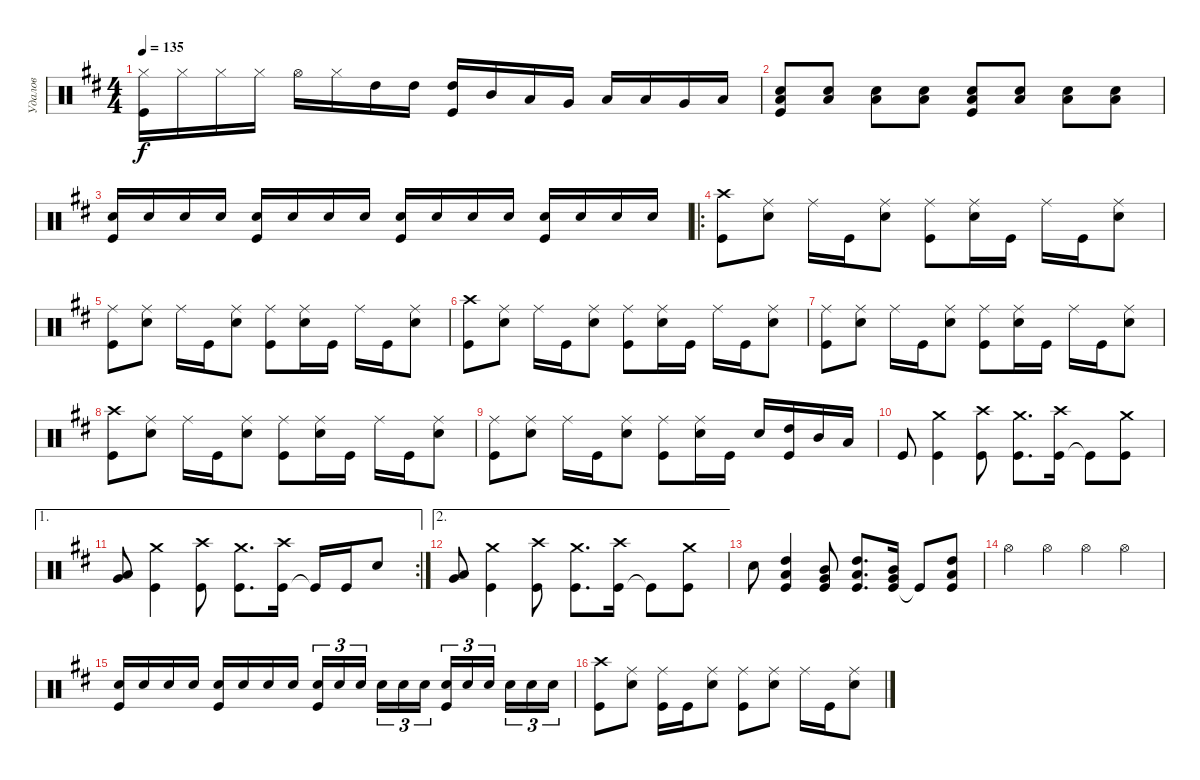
\track ("Удалов" "Удалов") {instrument percussion}
\staff {score}
\articulation defaults
\ts (4 4)
\tempo 135
\clef neutral
\ks d
("Kick (hit)" "Hi-Hat (closed)").16{dy f} "Hi-Hat (closed)".16 "Hi-Hat (closed)".16 "Hi-Hat (closed)".16 "Hi-Hat (open)".16 "Hi-Hat (closed)".16 "High Tom (hit)".16 "High Tom (hit)".16 ("High Tom (hit)" "Kick (hit)").16 "Mid Tom (hit)".16 "Low Tom (hit)".16 "Very Low Tom (hit)".16 "Low Tom (hit)".16 "Low Tom (hit)".16 "Very Low Tom (hit)".16 "Low Floor Tom (hit)".16 |
("Kick (hit)" "Electric Snare (hit)" "Low Floor Tom (hit)").8 ("Electric Snare (hit)" "Low Floor Tom (hit)").8 ("Electric Snare (hit)" "Low Floor Tom (hit)").8 ("Electric Snare (hit)" "Low Floor Tom (hit)").8 ("Kick (hit)" "Electric Snare (hit)" "Low Floor Tom (hit)").8 ("Electric Snare (hit)" "Low Floor Tom (hit)").8 ("Electric Snare (hit)" "Low Floor Tom (hit)").8 ("Electric Snare (hit)" "Low Floor Tom (hit)").8 |
("Kick (hit)" "Electric Snare (hit)").16 "Electric Snare (hit)".16 "Electric Snare (hit)".16 "Electric Snare (hit)".16 ("Kick (hit)" "Electric Snare (hit)").16 "Electric Snare (hit)".16 "Electric Snare (hit)".16 "Electric Snare (hit)".16 ("Kick (hit)" "Electric Snare (hit)").16 "Electric Snare (hit)".16 "Electric Snare (hit)".16 "Electric Snare (hit)".16 ("Kick (hit)" "Electric Snare (hit)").16 "Electric Snare (hit)".16 "Electric Snare (hit)".16 "Electric Snare (hit)".16 |
\ro
("Kick (hit)" "Crash high (hit)").8 ("Electric Snare (hit)" "Ride (middle)").8 "Ride (middle)".16 "Kick (hit)".16 ("Electric Snare (hit)" "Ride (middle)").8 ("Ride (middle)" "Kick (hit)").8 ("Ride (middle)" "Electric Snare (hit)").16 "Kick (hit)".16 "Ride (middle)".16 "Kick (hit)".16 ("Electric Snare (hit)" "Ride (middle)").8 |
("Kick (hit)" "Ride (middle)").8 ("Electric Snare (hit)" "Ride (middle)").8 "Ride (middle)".16 "Kick (hit)".16 ("Electric Snare (hit)" "Ride (middle)").8 ("Ride (middle)" "Kick (hit)").8 ("Ride (middle)" "Electric Snare (hit)").16 "Kick (hit)".16 "Ride (middle)".16 "Kick (hit)".16 ("Electric Snare (hit)" "Ride (middle)").8 |
("Kick (hit)" "Crash high (hit)").8 ("Electric Snare (hit)" "Ride (middle)").8 "Ride (middle)".16 "Kick (hit)".16 ("Electric Snare (hit)" "Ride (middle)").8 ("Ride (middle)" "Kick (hit)").8 ("Ride (middle)" "Electric Snare (hit)").16 "Kick (hit)".16 "Ride (middle)".16 "Kick (hit)".16 ("Electric Snare (hit)" "Ride (middle)").8 |
("Kick (hit)" "Ride (middle)").8 ("Electric Snare (hit)" "Ride (middle)").8 "Ride (middle)".16 "Kick (hit)".16 ("Electric Snare (hit)" "Ride (middle)").8 ("Ride (middle)" "Kick (hit)").8 ("Ride (middle)" "Electric Snare (hit)").16 "Kick (hit)".16 "Ride (middle)".16 "Kick (hit)".16 ("Electric Snare (hit)" "Ride (middle)").8 |
("Kick (hit)" "Crash high (hit)").8 ("Electric Snare (hit)" "Ride (middle)").8 "Ride (middle)".16 "Kick (hit)".16 ("Electric Snare (hit)" "Ride (middle)").8 ("Ride (middle)" "Kick (hit)").8 ("Ride (middle)" "Electric Snare (hit)").16 "Kick (hit)".16 "Ride (middle)".16 "Kick (hit)".16 ("Electric Snare (hit)" "Ride (middle)").8 |
("Kick (hit)" "Ride (middle)").8 ("Electric Snare (hit)" "Ride (middle)").8 "Ride (middle)".16 "Kick (hit)".16 ("Electric Snare (hit)" "Ride (middle)").8 ("Ride (middle)" "Kick (hit)").8 ("Ride (middle)" "Electric Snare (hit)").16 "Kick (hit)".16 "Electric Snare (hit)".16 ("Kick (hit)" "High Tom (hit)").16 "Mid Tom (hit)".16 "Low Tom (hit)".16 |
"Kick (hit)".8 ("Kick (hit)" "Crash medium (hit)").4 ("Kick (hit)" "Crash high (hit)").8 ("Kick (hit)" "Crash medium (hit)").8{d} ("Kick (hit)" "Crash high (hit)").16 "Kick (hit)"{t}.8 ("Kick (hit)" "Crash medium (hit)").8 |
\ae 1
\rc 2
("Very Low Tom (hit)" "Low Tom (hit)").8 ("Kick (hit)" "Crash medium (hit)").4 ("Kick (hit)" "Crash high (hit)").8 ("Kick (hit)" "Crash medium (hit)").8{d} ("Kick (hit)" "Crash high (hit)").16 "Kick (hit)"{t}.16 "Kick (hit)".16 "Electric Snare (hit)".8 |
\ae 2
("Very Low Tom (hit)" "Low Tom (hit)").8 ("Kick (hit)" "Crash medium (hit)").4 ("Kick (hit)" "Crash high (hit)").8 ("Kick (hit)" "Crash medium (hit)").8{d} ("Kick (hit)" "Crash high (hit)").16 "Kick (hit)"{t}.8 ("Kick (hit)" "Crash medium (hit)").8 |
"Electric Snare (hit)".8 ("Kick (hit)" "Low Tom (hit)" "High Tom (hit)").4 ("Kick (hit)" "Very Low Tom (hit)" "Mid Tom (hit)").8 ("Kick (hit)" "Low Tom (hit)" "High Tom (hit)").8{d} ("Kick (hit)" "Very Low Tom (hit)" "Mid Tom (hit)").16 "Kick (hit)"{t}.8 ("Kick (hit)" "Low Tom (hit)" "High Tom (hit)").8 |
"Hi-Hat (open)".4 "Hi-Hat (open)".4 "Hi-Hat (open)".4 "Hi-Hat (open)".4 |
("Kick (hit)" "Electric Snare (hit)").16 "Electric Snare (hit)".16 "Electric Snare (hit)".16 "Electric Snare (hit)".16 ("Kick (hit)" "Electric Snare (hit)").16 "Electric Snare (hit)".16 "Electric Snare (hit)".16 "Electric Snare (hit)".16 ("Kick (hit)" "Electric Snare (hit)").16{tu (3 2)} "Electric Snare (hit)".16{tu (3 2)} "Electric Snare (hit)".16{tu (3 2) beam splitsecondary} "Electric Snare (hit)".16{tu (3 2)} "Electric Snare (hit)".16{tu (3 2)} "Electric Snare (hit)".16{tu (3 2)} ("Kick (hit)" "Electric Snare (hit)").16{tu (3 2)} "Electric Snare (hit)".16{tu (3 2)} "Electric Snare (hit)".16{tu (3 2) beam splitsecondary} "Electric Snare (hit)".16{tu (3 2)} "Electric Snare (hit)".16{tu (3 2)} "Electric Snare (hit)".16{tu (3 2)} |
("Kick (hit)" "Crash high (hit)").8 ("Electric Snare (hit)" "Ride (middle)").8 ("Kick (hit)" "Ride (middle)").16 "Kick (hit)".16 ("Electric Snare (hit)" "Ride (middle)").8 ("Kick (hit)" "Ride (middle)").8 ("Electric Snare (hit)" "Ride (middle)").8 "Ride (middle)".16 "Kick (hit)".16 ("Electric Snare (hit)" "Ride (middle)").8
